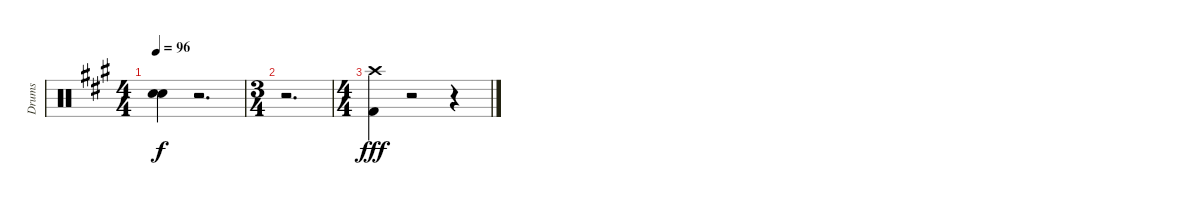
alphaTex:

\track ("Drums" "Drums") {instrument percussion}
\staff {score}
\articulation defaults
\ts (4 4)
\tempo 96
\clef neutral
\ks a
("Snare (hit)"{t} "Snare (hit)"{t}).4{dy f} r.2{d} |
\ts (3 4)
r.2{d} |
\ts (4 4)
("Kick (hit) 2" "Crash high (hit)").4{dy fff} r.2 r.4
